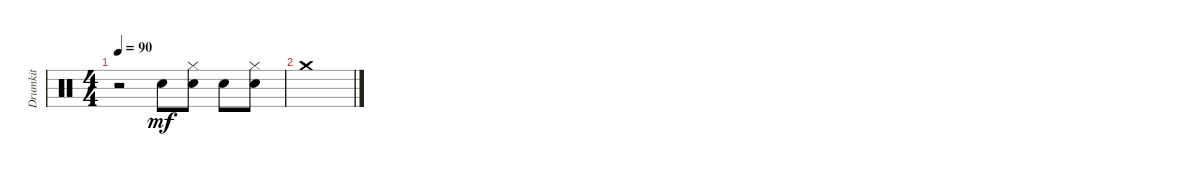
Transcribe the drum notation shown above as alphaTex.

\track ("Drumkit" "Drumkit") {instrument percussion}
\staff {score}
\articulation defaults
\ts (4 4)
\tempo 90
\clef neutral
\ks c
r.2{dy mf} "Snare (hit) 2".8 ("Snare (hit) 2" "Hi-Hat (closed)").8 "Snare (hit) 2".8 ("Hi-Hat (closed)" "Snare (hit) 2").8 |
"Crash medium (hit)".1
